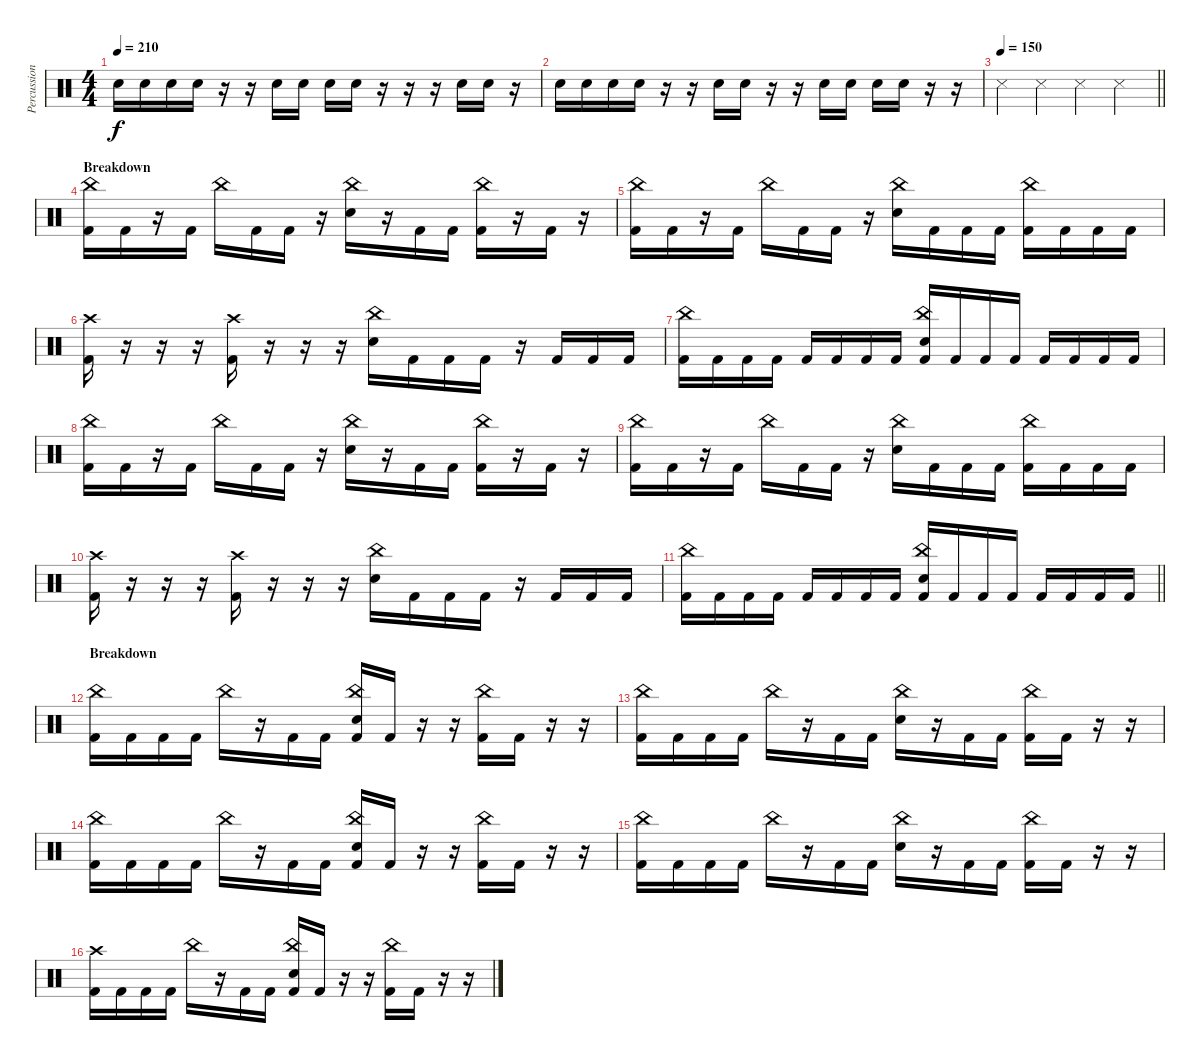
\track ("Percussion" "Percussion") {instrument percussion}
\staff {score}
\articulation defaults
\ts (4 4)
\tempo 210
\clef neutral
\ks c "Snare (hit) 2".16{dy f} "Snare (hit) 2".16 "Snare (hit) 2".16 "Snare (hit) 2".16
r.16 r.16 "Snare (hit) 2".16 "Snare (hit) 2".16 "Snare (hit) 2".16 "Snare (hit) 2".16 r.16 r.16 r.16 "Snare (hit) 2".16 "Snare (hit) 2".16 r.16 |
"Snare (hit) 2".16 "Snare (hit) 2".16 "Snare (hit) 2".16 "Snare (hit) 2".16 r.16 r.16 "Snare (hit) 2".16 "Snare (hit) 2".16 r.16 r.16 "Snare (hit) 2".16 "Snare (hit) 2".16 "Snare (hit) 2".16 "Snare (hit) 2".16 r.16 r.16 |
\tempo 150
\barLineRight lightlight "Metronome (hit)".4 "Metronome (hit)".4 "Metronome (hit)".4 "Metronome (hit)".4
|
\section ("" "Breakdown")
("China (hit)" "Kick (hit) 2").16 "Kick (hit) 2".16 r.16 "Kick (hit) 2".16 "China (hit)".16 "Kick (hit) 2".16 "Kick (hit) 2".16 r.16 ("China (hit)" "Snare (hit) 2").16 r.16 "Kick (hit) 2".16 "Kick (hit) 2".16 ("China (hit)" "Kick (hit) 2").16 r.16 "Kick (hit) 2".16 r.16 |
("China (hit)" "Kick (hit) 2").16 "Kick (hit) 2".16 r.16 "Kick (hit) 2".16 "China (hit)".16 "Kick (hit) 2".16 "Kick (hit) 2".16 r.16 ("China (hit)" "Snare (hit) 2").16 "Kick (hit) 2".16 "Kick (hit) 2".16 "Kick (hit) 2".16 ("China (hit)" "Kick (hit) 2").16 "Kick (hit) 2".16 "Kick (hit) 2".16 "Kick (hit) 2".16 |
("Crash high (hit)" "Kick (hit) 2").16 r.16 r.16 r.16 ("Crash high (hit)" "Kick (hit) 2").16 r.16 r.16 r.16 ("China (hit)" "Snare (hit) 2").16 "Kick (hit) 2".16 "Kick (hit) 2".16 "Kick (hit) 2".16 r.16 "Kick (hit) 2".16 "Kick (hit) 2".16 "Kick (hit) 2".16 |
("China (hit)" "Kick (hit) 2").16 "Kick (hit) 2".16 "Kick (hit) 2".16 "Kick (hit) 2".16 "Kick (hit) 2".16 "Kick (hit) 2".16 "Kick (hit) 2".16 "Kick (hit) 2".16 ("China (hit)" "Snare (hit) 2" "Kick (hit) 2").16 "Kick (hit) 2".16 "Kick (hit) 2".16 "Kick (hit) 2".16 "Kick (hit) 2".16 "Kick (hit) 2".16 "Kick (hit) 2".16 "Kick (hit) 2".16 |
("China (hit)" "Kick (hit) 2").16 "Kick (hit) 2".16 r.16 "Kick (hit) 2".16 "China (hit)".16 "Kick (hit) 2".16 "Kick (hit) 2".16 r.16 ("China (hit)" "Snare (hit) 2").16 r.16 "Kick (hit) 2".16 "Kick (hit) 2".16 ("China (hit)" "Kick (hit) 2").16 r.16 "Kick (hit) 2".16 r.16 |
("China (hit)" "Kick (hit) 2").16 "Kick (hit) 2".16 r.16 "Kick (hit) 2".16 "China (hit)".16 "Kick (hit) 2".16 "Kick (hit) 2".16 r.16 ("China (hit)" "Snare (hit) 2").16 "Kick (hit) 2".16 "Kick (hit) 2".16 "Kick (hit) 2".16 ("China (hit)" "Kick (hit) 2").16 "Kick (hit) 2".16 "Kick (hit) 2".16 "Kick (hit) 2".16 |
("Crash high (hit)" "Kick (hit) 2").16 r.16 r.16 r.16 ("Crash high (hit)" "Kick (hit) 2").16 r.16 r.16 r.16 ("China (hit)" "Snare (hit) 2").16 "Kick (hit) 2".16 "Kick (hit) 2".16 "Kick (hit) 2".16 r.16 "Kick (hit) 2".16 "Kick (hit) 2".16 "Kick (hit) 2".16 |
\barLineRight lightlight
("China (hit)" "Kick (hit) 2").16 "Kick (hit) 2".16 "Kick (hit) 2".16 "Kick (hit) 2".16 "Kick (hit) 2".16 "Kick (hit) 2".16 "Kick (hit) 2".16 "Kick (hit) 2".16 ("China (hit)" "Snare (hit) 2" "Kick (hit) 2").16 "Kick (hit) 2".16 "Kick (hit) 2".16 "Kick (hit) 2".16 "Kick (hit) 2".16 "Kick (hit) 2".16 "Kick (hit) 2".16 "Kick (hit) 2".16 |
\section ("" "Breakdown")
("China (hit)" "Kick (hit) 2").16 "Kick (hit) 2".16 "Kick (hit) 2".16 "Kick (hit) 2".16 "China (hit)".16 r.16 "Kick (hit) 2".16 "Kick (hit) 2".16 ("China (hit)" "Snare (hit) 2" "Kick (hit) 2").16 "Kick (hit) 2".16 r.16 r.16 ("China (hit)" "Kick (hit) 2").16 "Kick (hit) 2".16 r.16 r.16 |
("China (hit)" "Kick (hit) 2").16 "Kick (hit) 2".16 "Kick (hit) 2".16 "Kick (hit) 2".16 "China (hit)".16 r.16 "Kick (hit) 2".16 "Kick (hit) 2".16 ("China (hit)" "Snare (hit) 2").16 r.16 "Kick (hit) 2".16 "Kick (hit) 2".16 ("China (hit)" "Kick (hit) 2").16 "Kick (hit) 2".16 r.16 r.16 |
("China (hit)" "Kick (hit) 2").16 "Kick (hit) 2".16 "Kick (hit) 2".16 "Kick (hit) 2".16 "China (hit)".16 r.16 "Kick (hit) 2".16 "Kick (hit) 2".16 ("China (hit)" "Snare (hit) 2" "Kick (hit) 2").16 "Kick (hit) 2".16 r.16 r.16 ("China (hit)" "Kick (hit) 2").16 "Kick (hit) 2".16 r.16 r.16 |
("China (hit)" "Kick (hit) 2").16 "Kick (hit) 2".16 "Kick (hit) 2".16 "Kick (hit) 2".16 "China (hit)".16 r.16 "Kick (hit) 2".16 "Kick (hit) 2".16 ("China (hit)" "Snare (hit) 2").16 r.16 "Kick (hit) 2".16 "Kick (hit) 2".16 ("China (hit)" "Kick (hit) 2").16 "Kick (hit) 2".16 r.16 r.16 |
("Crash high (hit)" "Kick (hit) 2").16 "Kick (hit) 2".16 "Kick (hit) 2".16 "Kick (hit) 2".16 "China (hit)".16 r.16 "Kick (hit) 2".16 "Kick (hit) 2".16 ("China (hit)" "Snare (hit) 2" "Kick (hit) 2").16 "Kick (hit) 2".16 r.16 r.16 ("China (hit)" "Kick (hit) 2").16 "Kick (hit) 2".16 r.16 r.16
